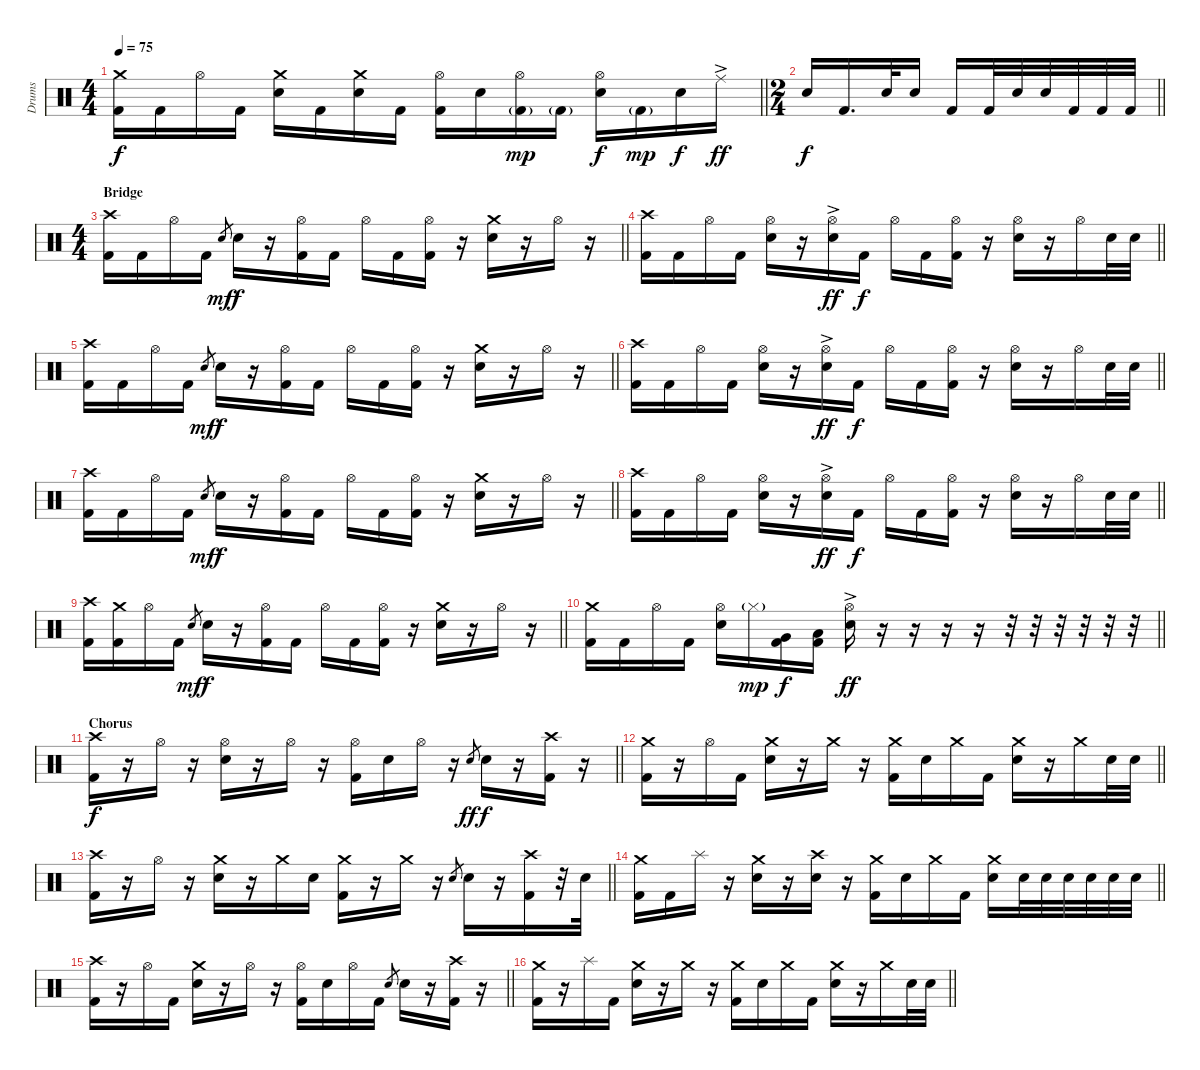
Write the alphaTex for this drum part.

\track ("Drums" "Drums") {instrument percussion}
\staff {score}
\articulation defaults
\ts (4 4)
\tempo 75
\clef neutral
\barLineRight lightlight
\ks c
("Crash medium (hit)" "Kick (hit) 2").16{dy f} "Kick (hit) 2".16 "Hi-Hat (open)".16 "Kick (hit) 2".16 ("Crash medium (hit)" "Snare (hit) 2").16 "Kick (hit) 2".16 ("Crash medium (hit)" "Snare (hit) 2").16 "Kick (hit) 2".16 ("Hi-Hat (open)" "Kick (hit) 2").16 "Snare (hit) 2".16 ("Hi-Hat (open)" "Kick (hit) 2"{g}).16{dy mp} "Kick (hit) 2"{g}.16 ("Hi-Hat (open)" "Snare (hit) 2").16{dy f} "Kick (hit) 2"{g}.16{dy mp} "Snare (hit) 2".16{dy f} "Ride (middle)"{ac}.16{dy ff} |
\ts (2 4)
\barLineRight lightlight "Snare (hit) 2".16{dy f} "Kick (hit) 2".16{d} "Snare (hit) 2".32 "Snare (hit) 2".16 "Kick (hit) 2".16 "Kick (hit) 2".32 "Snare (hit) 2".32 "Snare (hit) 2".32 "Kick (hit) 2".32 "Kick (hit) 2".32 "Kick (hit) 2".32
|
\ts (4 4)
\section ("" "Bridge")
\barLineRight lightlight
("Crash high (hit)" "Kick (hit) 2").16 "Kick (hit) 2".16 "Hi-Hat (open)".16 "Kick (hit) 2".16 "Snare (hit) 2".8{gr dy mf} "Snare (hit) 2".16{dy f} r.16 ("Hi-Hat (open)" "Kick (hit) 2").16 "Kick (hit) 2".16 "Hi-Hat (open)".16 "Kick (hit) 2".16 ("Hi-Hat (open)" "Kick (hit) 2").16 r.16 ("Crash medium (hit)" "Snare (hit) 2").16 r.16 "Hi-Hat (open)".16 r.16 |
\barLineRight lightlight
("Crash high (hit)" "Kick (hit) 2").16 "Kick (hit) 2".16 "Hi-Hat (open)".16 "Kick (hit) 2".16 ("Hi-Hat (open)" "Snare (hit) 2").16 r.16 ("Hi-Hat (open)" "Snare (hit) 2"{ac}).16{dy ff} "Kick (hit) 2".16{dy f} "Hi-Hat (open)".16 "Kick (hit) 2".16 ("Hi-Hat (open)" "Kick (hit) 2").16 r.16 ("Hi-Hat (open)" "Snare (hit) 2").16 r.16 "Hi-Hat (open)".16 "Snare (hit) 2".32 "Snare (hit) 2".32 |
\barLineRight lightlight
("Crash high (hit)" "Kick (hit) 2").16 "Kick (hit) 2".16 "Hi-Hat (open)".16 "Kick (hit) 2".16 "Snare (hit) 2".8{gr dy mf} "Snare (hit) 2".16{dy f} r.16 ("Hi-Hat (open)" "Kick (hit) 2").16 "Kick (hit) 2".16 "Hi-Hat (open)".16 "Kick (hit) 2".16 ("Hi-Hat (open)" "Kick (hit) 2").16 r.16 ("Crash medium (hit)" "Snare (hit) 2").16 r.16 "Hi-Hat (open)".16 r.16 |
\barLineRight lightlight
("Crash high (hit)" "Kick (hit) 2").16 "Kick (hit) 2".16 "Hi-Hat (open)".16 "Kick (hit) 2".16 ("Hi-Hat (open)" "Snare (hit) 2").16 r.16 ("Hi-Hat (open)" "Snare (hit) 2"{ac}).16{dy ff} "Kick (hit) 2".16{dy f} "Hi-Hat (open)".16 "Kick (hit) 2".16 ("Hi-Hat (open)" "Kick (hit) 2").16 r.16 ("Hi-Hat (open)" "Snare (hit) 2").16 r.16 "Hi-Hat (open)".16 "Snare (hit) 2".32 "Snare (hit) 2".32 |
\barLineRight lightlight
("Crash high (hit)" "Kick (hit) 2").16 "Kick (hit) 2".16 "Hi-Hat (open)".16 "Kick (hit) 2".16 "Snare (hit) 2".8{gr dy mf} "Snare (hit) 2".16{dy f} r.16 ("Hi-Hat (open)" "Kick (hit) 2").16 "Kick (hit) 2".16 "Hi-Hat (open)".16 "Kick (hit) 2".16 ("Hi-Hat (open)" "Kick (hit) 2").16 r.16 ("Crash medium (hit)" "Snare (hit) 2").16 r.16 "Hi-Hat (open)".16 r.16 |
\barLineRight lightlight
("Crash high (hit)" "Kick (hit) 2").16 "Kick (hit) 2".16 "Hi-Hat (open)".16 "Kick (hit) 2".16 ("Hi-Hat (open)" "Snare (hit) 2").16 r.16 ("Hi-Hat (open)" "Snare (hit) 2"{ac}).16{dy ff} "Kick (hit) 2".16{dy f} "Hi-Hat (open)".16 "Kick (hit) 2".16 ("Hi-Hat (open)" "Kick (hit) 2").16 r.16 ("Hi-Hat (open)" "Snare (hit) 2").16 r.16 "Hi-Hat (open)".16 "Snare (hit) 2".32 "Snare (hit) 2".32 |
\barLineRight lightlight
("Crash high (hit)" "Kick (hit) 2").16 ("Crash medium (hit)" "Kick (hit) 2").16 "Hi-Hat (open)".16 "Kick (hit) 2".16 "Snare (hit) 2".8{gr dy mf} "Snare (hit) 2".16{dy f} r.16 ("Hi-Hat (open)" "Kick (hit) 2").16 "Kick (hit) 2".16 "Hi-Hat (open)".16 "Kick (hit) 2".16 ("Hi-Hat (open)" "Kick (hit) 2").16 r.16 ("Crash medium (hit)" "Snare (hit) 2").16 r.16 "Hi-Hat (open)".16 r.16 |
\barLineRight lightlight
("Crash medium (hit)" "Kick (hit) 2").16 "Kick (hit) 2".16 "Hi-Hat (open)".16 "Kick (hit) 2".16 ("Hi-Hat (open)" "Snare (hit) 2").16 "Hi-Hat (closed)"{g}.16{dy mp} ("Very Low Tom (hit)" "Kick (hit) 2").16{dy f} ("Low Floor Tom (hit)" "Kick (hit) 2").16 ("Hi-Hat (open)"{ac} "Snare (hit) 2").16{dy ff} r.16 r.16 r.16 r.16 r.32 r.32 r.32 r.32 r.32 r.32 |
\section ("" "Chorus")
\barLineRight lightlight
("Crash high (hit)" "Kick (hit) 2").16{dy f} r.16 "Hi-Hat (open)".16 r.16 ("Hi-Hat (open)" "Snare (hit) 2").16 r.16 "Hi-Hat (open)".16 r.16 ("Hi-Hat (open)" "Kick (hit) 2").16 "Snare (hit) 2".16 "Hi-Hat (open)".16 r.16 "Snare (hit) 2".8{gr dy ff} "Snare (hit) 2".16{dy f} r.16 ("Crash high (hit)" "Kick (hit) 2").16 r.16 |
\barLineRight lightlight
("Crash medium (hit)" "Kick (hit) 2").16 r.16 "Hi-Hat (open)".16 "Kick (hit) 2".16 ("Crash medium (hit)" "Snare (hit) 2").16 r.16 "Crash medium (hit)".16 r.16 ("Crash medium (hit)" "Kick (hit) 2").16 "Snare (hit) 2".16 "Crash medium (hit)".16 "Kick (hit) 2".16 ("Crash medium (hit)" "Snare (hit) 2").16 r.16 "Crash medium (hit)".16 "Snare (hit) 2".32 "Snare (hit) 2".32 |
\barLineRight lightlight
("Crash high (hit)" "Kick (hit) 2").16 r.16 "Hi-Hat (open)".16 r.16 ("Crash medium (hit)" "Snare (hit) 2").16 r.16 "Crash medium (hit)".16 "Snare (hit) 2".16 ("Crash medium (hit)" "Kick (hit) 2").16 r.16 "Crash medium (hit)".16 r.16 "Snare (hit) 2".8{gr} "Snare (hit) 2".16 r.16 ("Crash high (hit)" "Kick (hit) 2").16 r.32 "Snare (hit) 2".32 |
\barLineRight lightlight
("Crash medium (hit)" "Kick (hit) 2").16 "Kick (hit) 2".16 "Splash (hit)".16 r.16 ("Crash medium (hit)" "Snare (hit) 2").16 r.16 ("Crash high (hit)" "Snare (hit) 2").16 r.16 ("Crash medium (hit)" "Kick (hit) 2").16 "Snare (hit) 2".16 "Crash medium (hit)".16 "Kick (hit) 2".16 ("Crash medium (hit)" "Snare (hit) 2").16 "Snare (hit) 2".32 "Snare (hit) 2".32 "Snare (hit) 2".32 "Snare (hit) 2".32 "Snare (hit) 2".32 "Snare (hit) 2".32 |
\barLineRight lightlight
("Crash high (hit)" "Kick (hit) 2").16 r.16 "Hi-Hat (open)".16 "Kick (hit) 2".16 ("Crash medium (hit)" "Snare (hit) 2").16 r.16 "Hi-Hat (open)".16 r.16 ("Hi-Hat (open)" "Kick (hit) 2").16 "Snare (hit) 2".16 "Hi-Hat (open)".16 "Kick (hit) 2".16 "Snare (hit) 2".8{gr} "Snare (hit) 2".16 r.16 ("Crash high (hit)" "Kick (hit) 2").16 r.16 |
\barLineRight lightlight
("Crash medium (hit)" "Kick (hit) 2").16 r.16 "Splash (hit)".16 "Kick (hit) 2".16 ("Crash medium (hit)" "Snare (hit) 2").16 r.16 "Crash medium (hit)".16 r.16 ("Crash medium (hit)" "Kick (hit) 2").16 "Snare (hit) 2".16 "Crash medium (hit)".16 "Kick (hit) 2".16 ("Crash medium (hit)" "Snare (hit) 2").16 r.16 "Crash medium (hit)".16 "Snare (hit) 2".32 "Snare (hit) 2".32
